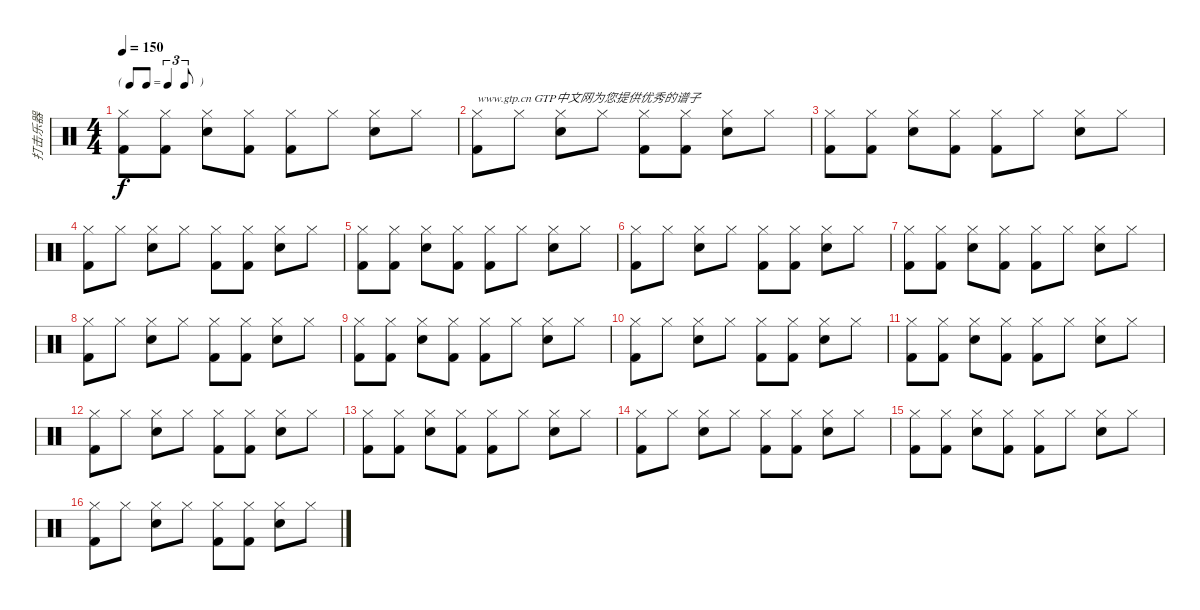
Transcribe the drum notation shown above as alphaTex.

\track ("打击乐器" "打击乐器") {instrument percussion}
\staff {score}
\articulation defaults
\ts (4 4)
\tf triplet8th
\tempo 150
\clef neutral
\ks c
("Hi-Hat (closed)" "Kick (hit) 2").8{dy f} ("Hi-Hat (closed)" "Kick (hit) 2").8 ("Hi-Hat (closed)" "Snare (hit) 2").8 ("Hi-Hat (closed)" "Kick (hit) 2").8 ("Hi-Hat (closed)" "Kick (hit) 2").8 "Hi-Hat (closed)".8 ("Hi-Hat (closed)" "Snare (hit) 2").8 "Hi-Hat (closed)".8 |
("Hi-Hat (closed)" "Kick (hit) 2").8{txt "www.gtp.cn GTP中文网为您提供优秀的谱子"} "Hi-Hat (closed)".8 ("Hi-Hat (closed)" "Snare (hit) 2").8 "Hi-Hat (closed)".8 ("Hi-Hat (closed)" "Kick (hit) 2").8 ("Hi-Hat (closed)" "Kick (hit) 2").8 ("Hi-Hat (closed)" "Snare (hit) 2").8 "Hi-Hat (closed)".8 |
("Hi-Hat (closed)" "Kick (hit) 2").8 ("Hi-Hat (closed)" "Kick (hit) 2").8 ("Hi-Hat (closed)" "Snare (hit) 2").8 ("Hi-Hat (closed)" "Kick (hit) 2").8 ("Hi-Hat (closed)" "Kick (hit) 2").8 "Hi-Hat (closed)".8 ("Hi-Hat (closed)" "Snare (hit) 2").8 "Hi-Hat (closed)".8 |
("Hi-Hat (closed)" "Kick (hit) 2").8 "Hi-Hat (closed)".8 ("Hi-Hat (closed)" "Snare (hit) 2").8 "Hi-Hat (closed)".8 ("Hi-Hat (closed)" "Kick (hit) 2").8 ("Hi-Hat (closed)" "Kick (hit) 2").8 ("Hi-Hat (closed)" "Snare (hit) 2").8 "Hi-Hat (closed)".8 |
("Hi-Hat (closed)" "Kick (hit) 2").8 ("Hi-Hat (closed)" "Kick (hit) 2").8 ("Hi-Hat (closed)" "Snare (hit) 2").8 ("Hi-Hat (closed)" "Kick (hit) 2").8 ("Hi-Hat (closed)" "Kick (hit) 2").8 "Hi-Hat (closed)".8 ("Hi-Hat (closed)" "Snare (hit) 2").8 "Hi-Hat (closed)".8 |
("Hi-Hat (closed)" "Kick (hit) 2").8 "Hi-Hat (closed)".8 ("Hi-Hat (closed)" "Snare (hit) 2").8 "Hi-Hat (closed)".8 ("Hi-Hat (closed)" "Kick (hit) 2").8 ("Hi-Hat (closed)" "Kick (hit) 2").8 ("Hi-Hat (closed)" "Snare (hit) 2").8 "Hi-Hat (closed)".8 |
("Hi-Hat (closed)" "Kick (hit) 2").8 ("Hi-Hat (closed)" "Kick (hit) 2").8 ("Hi-Hat (closed)" "Snare (hit) 2").8 ("Hi-Hat (closed)" "Kick (hit) 2").8 ("Hi-Hat (closed)" "Kick (hit) 2").8 "Hi-Hat (closed)".8 ("Hi-Hat (closed)" "Snare (hit) 2").8 "Hi-Hat (closed)".8 |
("Hi-Hat (closed)" "Kick (hit) 2").8 "Hi-Hat (closed)".8 ("Hi-Hat (closed)" "Snare (hit) 2").8 "Hi-Hat (closed)".8 ("Hi-Hat (closed)" "Kick (hit) 2").8 ("Hi-Hat (closed)" "Kick (hit) 2").8 ("Hi-Hat (closed)" "Snare (hit) 2").8 "Hi-Hat (closed)".8 |
("Hi-Hat (closed)" "Kick (hit) 2").8 ("Hi-Hat (closed)" "Kick (hit) 2").8 ("Hi-Hat (closed)" "Snare (hit) 2").8 ("Hi-Hat (closed)" "Kick (hit) 2").8 ("Hi-Hat (closed)" "Kick (hit) 2").8 "Hi-Hat (closed)".8 ("Hi-Hat (closed)" "Snare (hit) 2").8 "Hi-Hat (closed)".8 |
("Hi-Hat (closed)" "Kick (hit) 2").8 "Hi-Hat (closed)".8 ("Hi-Hat (closed)" "Snare (hit) 2").8 "Hi-Hat (closed)".8 ("Hi-Hat (closed)" "Kick (hit) 2").8 ("Hi-Hat (closed)" "Kick (hit) 2").8 ("Hi-Hat (closed)" "Snare (hit) 2").8 "Hi-Hat (closed)".8 |
("Hi-Hat (closed)" "Kick (hit) 2").8 ("Hi-Hat (closed)" "Kick (hit) 2").8 ("Hi-Hat (closed)" "Snare (hit) 2").8 ("Hi-Hat (closed)" "Kick (hit) 2").8 ("Hi-Hat (closed)" "Kick (hit) 2").8 "Hi-Hat (closed)".8 ("Hi-Hat (closed)" "Snare (hit) 2").8 "Hi-Hat (closed)".8 |
("Hi-Hat (closed)" "Kick (hit) 2").8 "Hi-Hat (closed)".8 ("Hi-Hat (closed)" "Snare (hit) 2").8 "Hi-Hat (closed)".8 ("Hi-Hat (closed)" "Kick (hit) 2").8 ("Hi-Hat (closed)" "Kick (hit) 2").8 ("Hi-Hat (closed)" "Snare (hit) 2").8 "Hi-Hat (closed)".8 |
("Hi-Hat (closed)" "Kick (hit) 2").8 ("Hi-Hat (closed)" "Kick (hit) 2").8 ("Hi-Hat (closed)" "Snare (hit) 2").8 ("Hi-Hat (closed)" "Kick (hit) 2").8 ("Hi-Hat (closed)" "Kick (hit) 2").8 "Hi-Hat (closed)".8 ("Hi-Hat (closed)" "Snare (hit) 2").8 "Hi-Hat (closed)".8 |
("Hi-Hat (closed)" "Kick (hit) 2").8 "Hi-Hat (closed)".8 ("Hi-Hat (closed)" "Snare (hit) 2").8 "Hi-Hat (closed)".8 ("Hi-Hat (closed)" "Kick (hit) 2").8 ("Hi-Hat (closed)" "Kick (hit) 2").8 ("Hi-Hat (closed)" "Snare (hit) 2").8 "Hi-Hat (closed)".8 |
("Hi-Hat (closed)" "Kick (hit) 2").8 ("Hi-Hat (closed)" "Kick (hit) 2").8 ("Hi-Hat (closed)" "Snare (hit) 2").8 ("Hi-Hat (closed)" "Kick (hit) 2").8 ("Hi-Hat (closed)" "Kick (hit) 2").8 "Hi-Hat (closed)".8 ("Hi-Hat (closed)" "Snare (hit) 2").8 "Hi-Hat (closed)".8 |
("Hi-Hat (closed)" "Kick (hit) 2").8 "Hi-Hat (closed)".8 ("Hi-Hat (closed)" "Snare (hit) 2").8 "Hi-Hat (closed)".8 ("Hi-Hat (closed)" "Kick (hit) 2").8 ("Hi-Hat (closed)" "Kick (hit) 2").8 ("Hi-Hat (closed)" "Snare (hit) 2").8 "Hi-Hat (closed)".8
